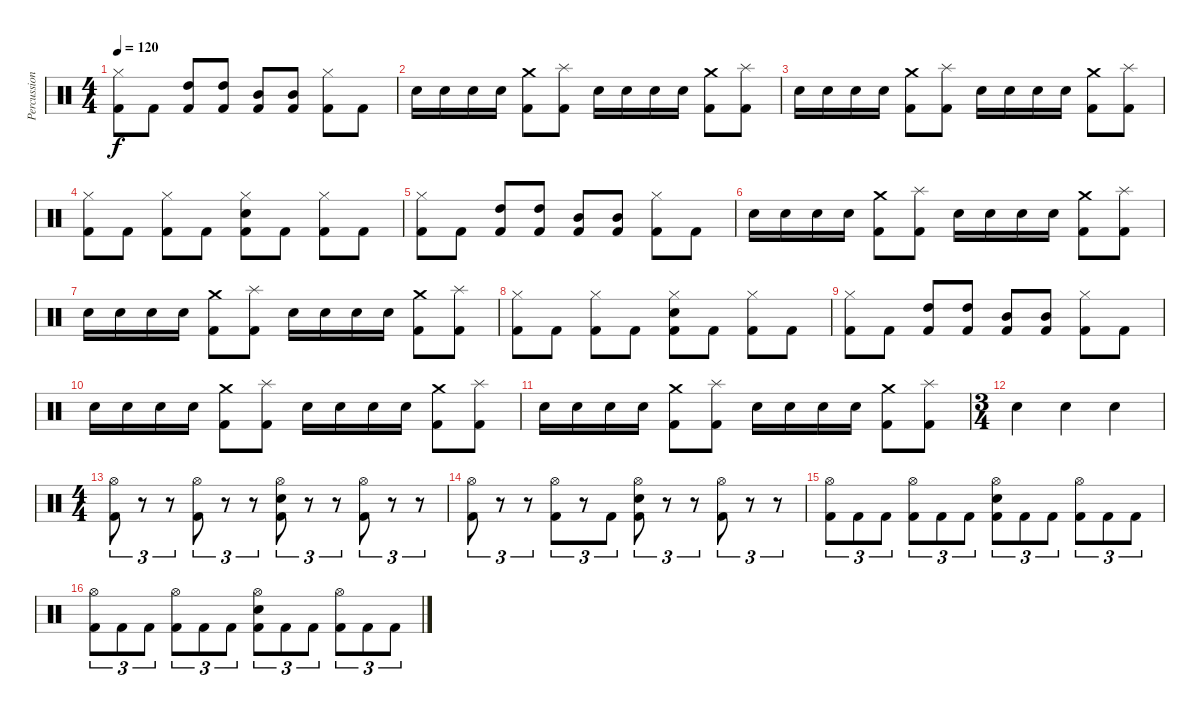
\track ("Percussion" "Percussion") {instrument percussion}
\staff {score}
\articulation defaults
\ts (4 4)
\tempo 120
\clef neutral
\ks c
("Hi-Hat (closed)" "Kick (hit) 2").8{dy f} "Kick (hit) 2".8 ("High Tom (hit)" "Kick (hit) 2").8 ("High Tom (hit)" "Kick (hit) 2").8 ("Mid Tom (hit)" "Kick (hit) 2").8 ("Mid Tom (hit)" "Kick (hit) 2").8 ("Hi-Hat (closed)" "Kick (hit) 2").8 "Kick (hit) 2".8 |
"Snare (hit) 2".16 "Snare (hit) 2".16 "Snare (hit) 2".16 "Snare (hit) 2".16 ("Kick (hit) 2" "Crash medium (hit)").8 ("Kick (hit) 2" "Splash (hit)").8 "Snare (hit) 2".16 "Snare (hit) 2".16 "Snare (hit) 2".16 "Snare (hit) 2".16 ("Kick (hit) 2" "Crash medium (hit)").8 ("Kick (hit) 2" "Splash (hit)").8 |
"Snare (hit) 2".16 "Snare (hit) 2".16 "Snare (hit) 2".16 "Snare (hit) 2".16 ("Kick (hit) 2" "Crash medium (hit)").8 ("Kick (hit) 2" "Splash (hit)").8 "Snare (hit) 2".16 "Snare (hit) 2".16 "Snare (hit) 2".16 "Snare (hit) 2".16 ("Kick (hit) 2" "Crash medium (hit)").8 ("Kick (hit) 2" "Splash (hit)").8 |
("Hi-Hat (closed)" "Kick (hit) 2").8 "Kick (hit) 2".8 ("Hi-Hat (closed)" "Kick (hit) 2").8 "Kick (hit) 2".8 ("Hi-Hat (closed)" "Snare (hit) 2" "Kick (hit) 2").8 "Kick (hit) 2".8 ("Hi-Hat (closed)" "Kick (hit) 2").8 "Kick (hit) 2".8 |
("Hi-Hat (closed)" "Kick (hit) 2").8 "Kick (hit) 2".8 ("High Tom (hit)" "Kick (hit) 2").8 ("High Tom (hit)" "Kick (hit) 2").8 ("Mid Tom (hit)" "Kick (hit) 2").8 ("Mid Tom (hit)" "Kick (hit) 2").8 ("Hi-Hat (closed)" "Kick (hit) 2").8 "Kick (hit) 2".8 |
"Snare (hit) 2".16 "Snare (hit) 2".16 "Snare (hit) 2".16 "Snare (hit) 2".16 ("Kick (hit) 2" "Crash medium (hit)").8 ("Kick (hit) 2" "Splash (hit)").8 "Snare (hit) 2".16 "Snare (hit) 2".16 "Snare (hit) 2".16 "Snare (hit) 2".16 ("Kick (hit) 2" "Crash medium (hit)").8 ("Kick (hit) 2" "Splash (hit)").8 |
"Snare (hit) 2".16 "Snare (hit) 2".16 "Snare (hit) 2".16 "Snare (hit) 2".16 ("Kick (hit) 2" "Crash medium (hit)").8 ("Kick (hit) 2" "Splash (hit)").8 "Snare (hit) 2".16 "Snare (hit) 2".16 "Snare (hit) 2".16 "Snare (hit) 2".16 ("Kick (hit) 2" "Crash medium (hit)").8 ("Kick (hit) 2" "Splash (hit)").8 |
("Hi-Hat (closed)" "Kick (hit) 2").8 "Kick (hit) 2".8 ("Hi-Hat (closed)" "Kick (hit) 2").8 "Kick (hit) 2".8 ("Hi-Hat (closed)" "Snare (hit) 2" "Kick (hit) 2").8 "Kick (hit) 2".8 ("Hi-Hat (closed)" "Kick (hit) 2").8 "Kick (hit) 2".8 |
("Hi-Hat (closed)" "Kick (hit) 2").8 "Kick (hit) 2".8 ("High Tom (hit)" "Kick (hit) 2").8 ("High Tom (hit)" "Kick (hit) 2").8 ("Mid Tom (hit)" "Kick (hit) 2").8 ("Mid Tom (hit)" "Kick (hit) 2").8 ("Hi-Hat (closed)" "Kick (hit) 2").8 "Kick (hit) 2".8 |
"Snare (hit) 2".16 "Snare (hit) 2".16 "Snare (hit) 2".16 "Snare (hit) 2".16 ("Kick (hit) 2" "Crash medium (hit)").8 ("Kick (hit) 2" "Splash (hit)").8 "Snare (hit) 2".16 "Snare (hit) 2".16 "Snare (hit) 2".16 "Snare (hit) 2".16 ("Kick (hit) 2" "Crash medium (hit)").8 ("Kick (hit) 2" "Splash (hit)").8 |
"Snare (hit) 2".16 "Snare (hit) 2".16 "Snare (hit) 2".16 "Snare (hit) 2".16 ("Kick (hit) 2" "Crash medium (hit)").8 ("Kick (hit) 2" "Splash (hit)").8 "Snare (hit) 2".16 "Snare (hit) 2".16 "Snare (hit) 2".16 "Snare (hit) 2".16 ("Kick (hit) 2" "Crash medium (hit)").8 ("Kick (hit) 2" "Splash (hit)").8 |
\ts (3 4)
"Snare (hit) 2".4 "Snare (hit) 2".4 "Snare (hit) 2".4 |
\ts (4 4)
("Hi-Hat (open)" "Kick (hit) 2").8{tu (3 2)} r.8{tu (3 2)} r.8{tu (3 2)} ("Hi-Hat (open)" "Kick (hit) 2").8{tu (3 2)} r.8{tu (3 2)} r.8{tu (3 2)} ("Hi-Hat (open)" "Snare (hit) 2" "Kick (hit) 2").8{tu (3 2)} r.8{tu (3 2)} r.8{tu (3 2)} ("Hi-Hat (open)" "Kick (hit) 2").8{tu (3 2)} r.8{tu (3 2)} r.8{tu (3 2)} |
("Hi-Hat (open)" "Kick (hit) 2").8{tu (3 2)} r.8{tu (3 2)} r.8{tu (3 2)} ("Hi-Hat (open)" "Kick (hit) 2").8{tu (3 2)} r.8{tu (3 2)} "Kick (hit) 2".8{tu (3 2)} ("Hi-Hat (open)" "Snare (hit) 2" "Kick (hit) 2").8{tu (3 2)} r.8{tu (3 2)} r.8{tu (3 2)} ("Hi-Hat (open)" "Kick (hit) 2").8{tu (3 2)} r.8{tu (3 2)} r.8{tu (3 2)} |
("Hi-Hat (open)" "Kick (hit) 2").8{tu (3 2)} "Kick (hit) 2".8{tu (3 2)} "Kick (hit) 2".8{tu (3 2)} ("Hi-Hat (open)" "Kick (hit) 2").8{tu (3 2)} "Kick (hit) 2".8{tu (3 2)} "Kick (hit) 2".8{tu (3 2)} ("Hi-Hat (open)" "Snare (hit) 2" "Kick (hit) 2").8{tu (3 2)} "Kick (hit) 2".8{tu (3 2)} "Kick (hit) 2".8{tu (3 2)} ("Hi-Hat (open)" "Kick (hit) 2").8{tu (3 2)} "Kick (hit) 2".8{tu (3 2)} "Kick (hit) 2".8{tu (3 2)} |
("Hi-Hat (open)" "Kick (hit) 2").8{tu (3 2)} "Kick (hit) 2".8{tu (3 2)} "Kick (hit) 2".8{tu (3 2)} ("Hi-Hat (open)" "Kick (hit) 2").8{tu (3 2)} "Kick (hit) 2".8{tu (3 2)} "Kick (hit) 2".8{tu (3 2)} ("Hi-Hat (open)" "Snare (hit) 2" "Kick (hit) 2").8{tu (3 2)} "Kick (hit) 2".8{tu (3 2)} "Kick (hit) 2".8{tu (3 2)} ("Hi-Hat (open)" "Kick (hit) 2").8{tu (3 2)} "Kick (hit) 2".8{tu (3 2)} "Kick (hit) 2".8{tu (3 2)}
